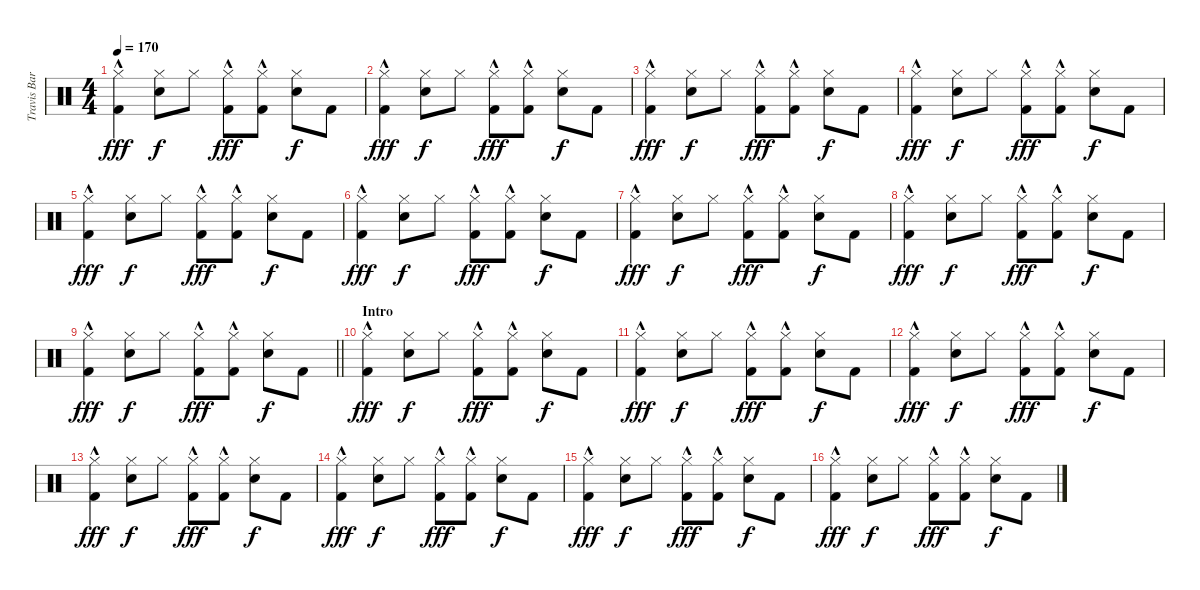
\track ("Travis Barker" "Travis Bar") {instrument percussion}
\staff {score}
\articulation defaults
\ts (4 4)
\tempo 170
\clef neutral
\ks c
("Hi-Hat (closed)" "Kick (hit) 2"{hac}).4{dy fff} ("Hi-Hat (closed)" "Snare (hit) 2").8{dy f} "Hi-Hat (closed)".8 ("Hi-Hat (closed)" "Kick (hit) 2"{hac}).8{dy fff} ("Hi-Hat (closed)" "Kick (hit) 2"{hac}).8 ("Hi-Hat (closed)" "Snare (hit) 2").8{dy f} "Kick (hit) 2".8 |
("Hi-Hat (closed)" "Kick (hit) 2"{hac}).4{dy fff} ("Hi-Hat (closed)" "Snare (hit) 2").8{dy f} "Hi-Hat (closed)".8 ("Hi-Hat (closed)" "Kick (hit) 2"{hac}).8{dy fff} ("Hi-Hat (closed)" "Kick (hit) 2"{hac}).8 ("Hi-Hat (closed)" "Snare (hit) 2").8{dy f} "Kick (hit) 2".8 |
("Hi-Hat (closed)" "Kick (hit) 2"{hac}).4{dy fff} ("Hi-Hat (closed)" "Snare (hit) 2").8{dy f} "Hi-Hat (closed)".8 ("Hi-Hat (closed)" "Kick (hit) 2"{hac}).8{dy fff} ("Hi-Hat (closed)" "Kick (hit) 2"{hac}).8 ("Hi-Hat (closed)" "Snare (hit) 2").8{dy f} "Kick (hit) 2".8 |
("Hi-Hat (closed)" "Kick (hit) 2"{hac}).4{dy fff} ("Hi-Hat (closed)" "Snare (hit) 2").8{dy f} "Hi-Hat (closed)".8 ("Hi-Hat (closed)" "Kick (hit) 2"{hac}).8{dy fff} ("Hi-Hat (closed)" "Kick (hit) 2"{hac}).8 ("Hi-Hat (closed)" "Snare (hit) 2").8{dy f} "Kick (hit) 2".8 |
("Hi-Hat (closed)" "Kick (hit) 2"{hac}).4{dy fff} ("Hi-Hat (closed)" "Snare (hit) 2").8{dy f} "Hi-Hat (closed)".8 ("Hi-Hat (closed)" "Kick (hit) 2"{hac}).8{dy fff} ("Hi-Hat (closed)" "Kick (hit) 2"{hac}).8 ("Hi-Hat (closed)" "Snare (hit) 2").8{dy f} "Kick (hit) 2".8 |
("Hi-Hat (closed)" "Kick (hit) 2"{hac}).4{dy fff} ("Hi-Hat (closed)" "Snare (hit) 2").8{dy f} "Hi-Hat (closed)".8 ("Hi-Hat (closed)" "Kick (hit) 2"{hac}).8{dy fff} ("Hi-Hat (closed)" "Kick (hit) 2"{hac}).8 ("Hi-Hat (closed)" "Snare (hit) 2").8{dy f} "Kick (hit) 2".8 |
("Hi-Hat (closed)" "Kick (hit) 2"{hac}).4{dy fff} ("Hi-Hat (closed)" "Snare (hit) 2").8{dy f} "Hi-Hat (closed)".8 ("Hi-Hat (closed)" "Kick (hit) 2"{hac}).8{dy fff} ("Hi-Hat (closed)" "Kick (hit) 2"{hac}).8 ("Hi-Hat (closed)" "Snare (hit) 2").8{dy f} "Kick (hit) 2".8 |
("Hi-Hat (closed)" "Kick (hit) 2"{hac}).4{dy fff} ("Hi-Hat (closed)" "Snare (hit) 2").8{dy f} "Hi-Hat (closed)".8 ("Hi-Hat (closed)" "Kick (hit) 2"{hac}).8{dy fff} ("Hi-Hat (closed)" "Kick (hit) 2"{hac}).8 ("Hi-Hat (closed)" "Snare (hit) 2").8{dy f} "Kick (hit) 2".8 |
\barLineRight lightlight
("Hi-Hat (closed)" "Kick (hit) 2"{hac}).4{dy fff} ("Hi-Hat (closed)" "Snare (hit) 2").8{dy f} "Hi-Hat (closed)".8 ("Hi-Hat (closed)" "Kick (hit) 2"{hac}).8{dy fff} ("Hi-Hat (closed)" "Kick (hit) 2"{hac}).8 ("Hi-Hat (closed)" "Snare (hit) 2").8{dy f} "Kick (hit) 2".8 |
\section ("" "Intro")
("Hi-Hat (closed)" "Kick (hit) 2"{hac}).4{dy fff} ("Hi-Hat (closed)" "Snare (hit) 2").8{dy f} "Hi-Hat (closed)".8 ("Hi-Hat (closed)" "Kick (hit) 2"{hac}).8{dy fff} ("Hi-Hat (closed)" "Kick (hit) 2"{hac}).8 ("Hi-Hat (closed)" "Snare (hit) 2").8{dy f} "Kick (hit) 2".8 |
("Hi-Hat (closed)" "Kick (hit) 2"{hac}).4{dy fff} ("Hi-Hat (closed)" "Snare (hit) 2").8{dy f} "Hi-Hat (closed)".8 ("Hi-Hat (closed)" "Kick (hit) 2"{hac}).8{dy fff} ("Hi-Hat (closed)" "Kick (hit) 2"{hac}).8 ("Hi-Hat (closed)" "Snare (hit) 2").8{dy f} "Kick (hit) 2".8 |
("Hi-Hat (closed)" "Kick (hit) 2"{hac}).4{dy fff} ("Hi-Hat (closed)" "Snare (hit) 2").8{dy f} "Hi-Hat (closed)".8 ("Hi-Hat (closed)" "Kick (hit) 2"{hac}).8{dy fff} ("Hi-Hat (closed)" "Kick (hit) 2"{hac}).8 ("Hi-Hat (closed)" "Snare (hit) 2").8{dy f} "Kick (hit) 2".8 |
("Hi-Hat (closed)" "Kick (hit) 2"{hac}).4{dy fff} ("Hi-Hat (closed)" "Snare (hit) 2").8{dy f} "Hi-Hat (closed)".8 ("Hi-Hat (closed)" "Kick (hit) 2"{hac}).8{dy fff} ("Hi-Hat (closed)" "Kick (hit) 2"{hac}).8 ("Hi-Hat (closed)" "Snare (hit) 2").8{dy f} "Kick (hit) 2".8 |
("Hi-Hat (closed)" "Kick (hit) 2"{hac}).4{dy fff} ("Hi-Hat (closed)" "Snare (hit) 2").8{dy f} "Hi-Hat (closed)".8 ("Hi-Hat (closed)" "Kick (hit) 2"{hac}).8{dy fff} ("Hi-Hat (closed)" "Kick (hit) 2"{hac}).8 ("Hi-Hat (closed)" "Snare (hit) 2").8{dy f} "Kick (hit) 2".8 |
("Hi-Hat (closed)" "Kick (hit) 2"{hac}).4{dy fff} ("Hi-Hat (closed)" "Snare (hit) 2").8{dy f} "Hi-Hat (closed)".8 ("Hi-Hat (closed)" "Kick (hit) 2"{hac}).8{dy fff} ("Hi-Hat (closed)" "Kick (hit) 2"{hac}).8 ("Hi-Hat (closed)" "Snare (hit) 2").8{dy f} "Kick (hit) 2".8 |
("Hi-Hat (closed)" "Kick (hit) 2"{hac}).4{dy fff} ("Hi-Hat (closed)" "Snare (hit) 2").8{dy f} "Hi-Hat (closed)".8 ("Hi-Hat (closed)" "Kick (hit) 2"{hac}).8{dy fff} ("Hi-Hat (closed)" "Kick (hit) 2"{hac}).8 ("Hi-Hat (closed)" "Snare (hit) 2").8{dy f} "Kick (hit) 2".8
